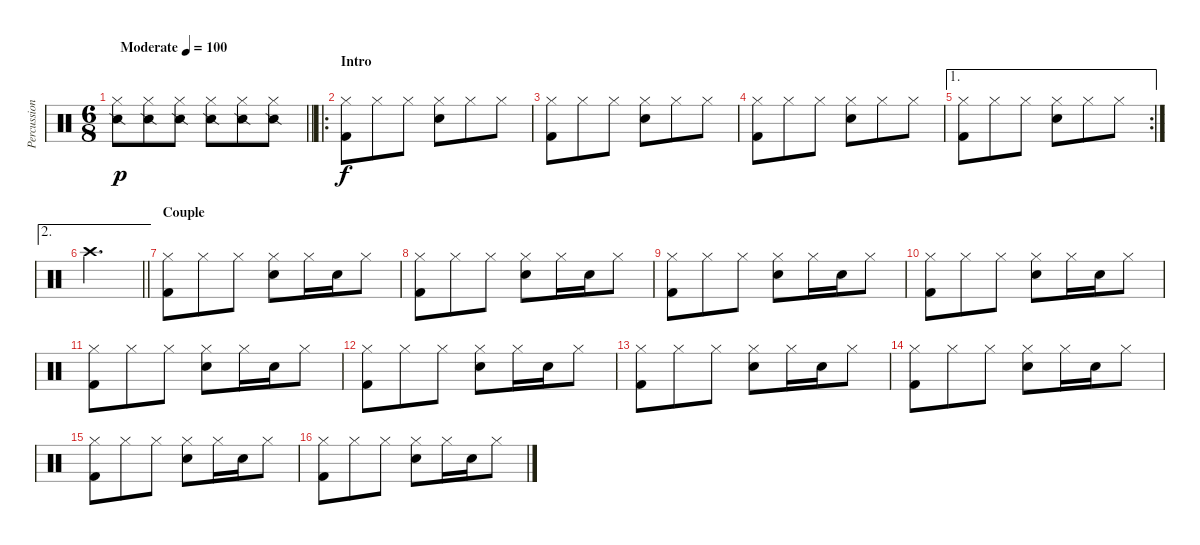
\track ("Percussion" "Percussion") {instrument percussion}
\staff {score}
\articulation defaults
\ts (6 8)
\tempo (100 "Moderate")
\clef neutral
\barLineRight lightlight
\ks c
("Hi-Hat (closed)" "Snare (side stick) 2").8{dy p volume 12} ("Hi-Hat (closed)" "Snare (side stick) 2").8 ("Hi-Hat (closed)" "Snare (side stick) 2").8 ("Hi-Hat (closed)" "Snare (side stick) 2").8 ("Hi-Hat (closed)" "Snare (side stick) 2").8 ("Hi-Hat (closed)" "Snare (side stick) 2").8 |
\ro
\section ("" "Intro")
("Hi-Hat (closed)" "Kick (hit) 2").8{dy f} "Hi-Hat (closed)".8 "Hi-Hat (closed)".8 ("Hi-Hat (closed)" "Electric Snare (hit)").8 "Hi-Hat (closed)".8 "Hi-Hat (closed)".8 |
("Hi-Hat (closed)" "Kick (hit) 2").8 "Hi-Hat (closed)".8 "Hi-Hat (closed)".8 ("Hi-Hat (closed)" "Electric Snare (hit)").8 "Hi-Hat (closed)".8 "Hi-Hat (closed)".8 |
("Hi-Hat (closed)" "Kick (hit) 2").8 "Hi-Hat (closed)".8 "Hi-Hat (closed)".8 ("Hi-Hat (closed)" "Electric Snare (hit)").8 "Hi-Hat (closed)".8 "Hi-Hat (closed)".8 |
\ae 1
\rc 2
("Hi-Hat (closed)" "Kick (hit) 2").8 "Hi-Hat (closed)".8 "Hi-Hat (closed)".8 ("Hi-Hat (closed)" "Electric Snare (hit)").8 "Hi-Hat (closed)".8 "Hi-Hat (closed)".8 |
\ae 2
\barLineRight lightlight "Crash high (hit)".2{d}
|
\section ("" "Couple")
("Hi-Hat (closed)" "Kick (hit) 2").8 "Hi-Hat (closed)".8 "Hi-Hat (closed)".8 ("Hi-Hat (closed)" "Snare (hit) 2").8 "Hi-Hat (closed)".16 "Snare (hit) 2".16 "Hi-Hat (closed)".8 |
("Hi-Hat (closed)" "Kick (hit) 2").8 "Hi-Hat (closed)".8 "Hi-Hat (closed)".8 ("Hi-Hat (closed)" "Snare (hit) 2").8 "Hi-Hat (closed)".16 "Snare (hit) 2".16 "Hi-Hat (closed)".8 |
("Hi-Hat (closed)" "Kick (hit) 2").8 "Hi-Hat (closed)".8 "Hi-Hat (closed)".8 ("Hi-Hat (closed)" "Electric Snare (hit)").8 "Hi-Hat (closed)".16 "Snare (hit) 2".16 "Hi-Hat (closed)".8 |
("Hi-Hat (closed)" "Kick (hit) 2").8 "Hi-Hat (closed)".8 "Hi-Hat (closed)".8 ("Hi-Hat (closed)" "Snare (hit) 2").8 "Hi-Hat (closed)".16 "Snare (hit) 2".16 "Hi-Hat (closed)".8 |
("Hi-Hat (closed)" "Kick (hit) 2").8 "Hi-Hat (closed)".8 "Hi-Hat (closed)".8 ("Hi-Hat (closed)" "Snare (hit) 2").8 "Hi-Hat (closed)".16 "Snare (hit) 2".16 "Hi-Hat (closed)".8 |
("Hi-Hat (closed)" "Kick (hit) 2").8 "Hi-Hat (closed)".8 "Hi-Hat (closed)".8 ("Hi-Hat (closed)" "Snare (hit) 2").8 "Hi-Hat (closed)".16 "Snare (hit) 2".16 "Hi-Hat (closed)".8 |
("Hi-Hat (closed)" "Kick (hit) 2").8 "Hi-Hat (closed)".8 "Hi-Hat (closed)".8 ("Hi-Hat (closed)" "Snare (hit) 2").8 "Hi-Hat (closed)".16 "Snare (hit) 2".16 "Hi-Hat (closed)".8 |
("Hi-Hat (closed)" "Kick (hit) 2").8 "Hi-Hat (closed)".8 "Hi-Hat (closed)".8 ("Hi-Hat (closed)" "Snare (hit) 2").8 "Hi-Hat (closed)".16 "Snare (hit) 2".16 "Hi-Hat (closed)".8 |
("Hi-Hat (closed)" "Kick (hit) 2").8 "Hi-Hat (closed)".8 "Hi-Hat (closed)".8 ("Hi-Hat (closed)" "Snare (hit) 2").8 "Hi-Hat (closed)".16 "Snare (hit) 2".16 "Hi-Hat (closed)".8 |
("Hi-Hat (closed)" "Kick (hit) 2").8 "Hi-Hat (closed)".8 "Hi-Hat (closed)".8 ("Hi-Hat (closed)" "Snare (hit) 2").8 "Hi-Hat (closed)".16 "Snare (hit) 2".16 "Hi-Hat (closed)".8
